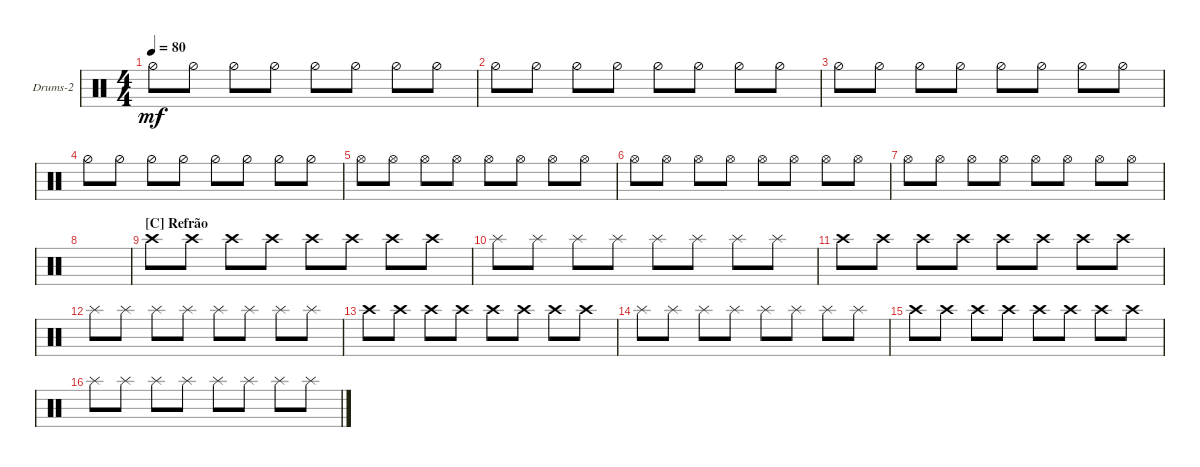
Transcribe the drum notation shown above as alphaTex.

\defaultSystemsLayout 4
\bracketExtendMode groupsimilarinstruments
\firstSystemTrackNameOrientation horizontal
\otherSystemsTrackNameOrientation horizontal
\track ("Percussão" "Drums-2") {multiBarRest instrument percussion}
\staff {score}
\articulation defaults
\ts (4 4)
\tempo 80
\clef neutral
\ks c "Hi-Hat (half)".8{dy mf} "Hi-Hat (half)".8 "Hi-Hat (half)".8 "Hi-Hat (half)".8 "Hi-Hat (half)".8 "Hi-Hat (half)".8 "Hi-Hat (half)".8 "Hi-Hat (half)".8
|
"Hi-Hat (half)".8 "Hi-Hat (half)".8 "Hi-Hat (half)".8 "Hi-Hat (half)".8 "Hi-Hat (half)".8 "Hi-Hat (half)".8 "Hi-Hat (half)".8 "Hi-Hat (half)".8 |
"Hi-Hat (half)".8 "Hi-Hat (half)".8 "Hi-Hat (half)".8 "Hi-Hat (half)".8 "Hi-Hat (half)".8 "Hi-Hat (half)".8 "Hi-Hat (half)".8 "Hi-Hat (half)".8 |
"Hi-Hat (half)".8 "Hi-Hat (half)".8 "Hi-Hat (half)".8 "Hi-Hat (half)".8 "Hi-Hat (half)".8 "Hi-Hat (half)".8 "Hi-Hat (half)".8 "Hi-Hat (half)".8 |
"Hi-Hat (open)".8 "Hi-Hat (open)".8 "Hi-Hat (open)".8 "Hi-Hat (open)".8 "Hi-Hat (open)".8 "Hi-Hat (open)".8 "Hi-Hat (open)".8 "Hi-Hat (open)".8 |
"Hi-Hat (open)".8 "Hi-Hat (open)".8 "Hi-Hat (open)".8 "Hi-Hat (open)".8 "Hi-Hat (open)".8 "Hi-Hat (open)".8 "Hi-Hat (open)".8 "Hi-Hat (open)".8 |
"Hi-Hat (open)".8 "Hi-Hat (open)".8 "Hi-Hat (open)".8 "Hi-Hat (open)".8 "Hi-Hat (open)".8 "Hi-Hat (open)".8 "Hi-Hat (open)".8 "Hi-Hat (open)".8 |
|
\section ("C" "Refrão")
"Crash high (hit)".8 "Crash high (hit)".8 "Crash high (hit)".8 "Crash high (hit)".8 "Crash high (hit)".8 "Crash high (hit)".8 "Crash high (hit)".8 "Crash high (hit)".8 |
"Splash (hit)".8 "Splash (hit)".8 "Splash (hit)".8 "Splash (hit)".8 "Splash (hit)".8 "Splash (hit)".8 "Splash (hit)".8 "Splash (hit)".8 |
"Crash high (hit)".8 "Crash high (hit)".8 "Crash high (hit)".8 "Crash high (hit)".8 "Crash high (hit)".8 "Crash high (hit)".8 "Crash high (hit)".8 "Crash high (hit)".8 |
"Splash (hit)".8 "Splash (hit)".8 "Splash (hit)".8 "Splash (hit)".8 "Splash (hit)".8 "Splash (hit)".8 "Splash (hit)".8 "Splash (hit)".8 |
"Crash high (hit)".8 "Crash high (hit)".8 "Crash high (hit)".8 "Crash high (hit)".8 "Crash high (hit)".8 "Crash high (hit)".8 "Crash high (hit)".8 "Crash high (hit)".8 |
"Splash (hit)".8 "Splash (hit)".8 "Splash (hit)".8 "Splash (hit)".8 "Splash (hit)".8 "Splash (hit)".8 "Splash (hit)".8 "Splash (hit)".8 |
"Crash high (hit)".8 "Crash high (hit)".8 "Crash high (hit)".8 "Crash high (hit)".8 "Crash high (hit)".8 "Crash high (hit)".8 "Crash high (hit)".8 "Crash high (hit)".8 |
"Splash (hit)".8 "Splash (hit)".8 "Splash (hit)".8 "Splash (hit)".8 "Splash (hit)".8 "Splash (hit)".8 "Splash (hit)".8 "Splash (hit)".8
